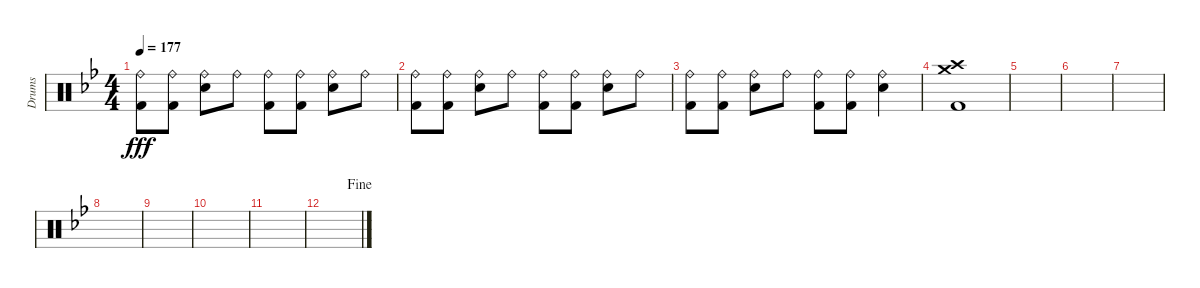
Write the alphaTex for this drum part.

\track ("Drums" "Drums") {instrument percussion}
\staff {score}
\articulation defaults
\ts (4 4)
\tempo 177
\clef neutral
\ks bb
("Ride (bell)" "Kick (hit) 2").8{dy fff} ("Ride (bell)" "Kick (hit) 2").8 ("Ride (bell)" "Snare (hit) 2").8 "Ride (bell)".8 ("Ride (bell)" "Kick (hit) 2").8 ("Ride (bell)" "Kick (hit) 2").8 ("Ride (bell)" "Snare (hit) 2").8 "Ride (bell)".8 |
("Ride (bell)" "Kick (hit) 2").8 ("Ride (bell)" "Kick (hit) 2").8 ("Ride (bell)" "Snare (hit) 2").8 "Ride (bell)".8 ("Ride (bell)" "Kick (hit) 2").8 ("Ride (bell)" "Kick (hit) 2").8 ("Ride (bell)" "Snare (hit) 2").8 "Ride (bell)".8 |
("Ride (bell)" "Kick (hit) 2").8 ("Ride (bell)" "Kick (hit) 2").8 ("Ride (bell)" "Snare (hit) 2").8 "Ride (bell)".8 ("Ride (bell)" "Kick (hit) 2").8 ("Ride (bell)" "Kick (hit) 2").8 ("Ride (bell)" "Snare (hit) 2").4 |
("Crash medium (hit)" "Crash high (hit)" "Kick (hit) 2").1 |
|
|
|
|
|
|
|
\jump fine
